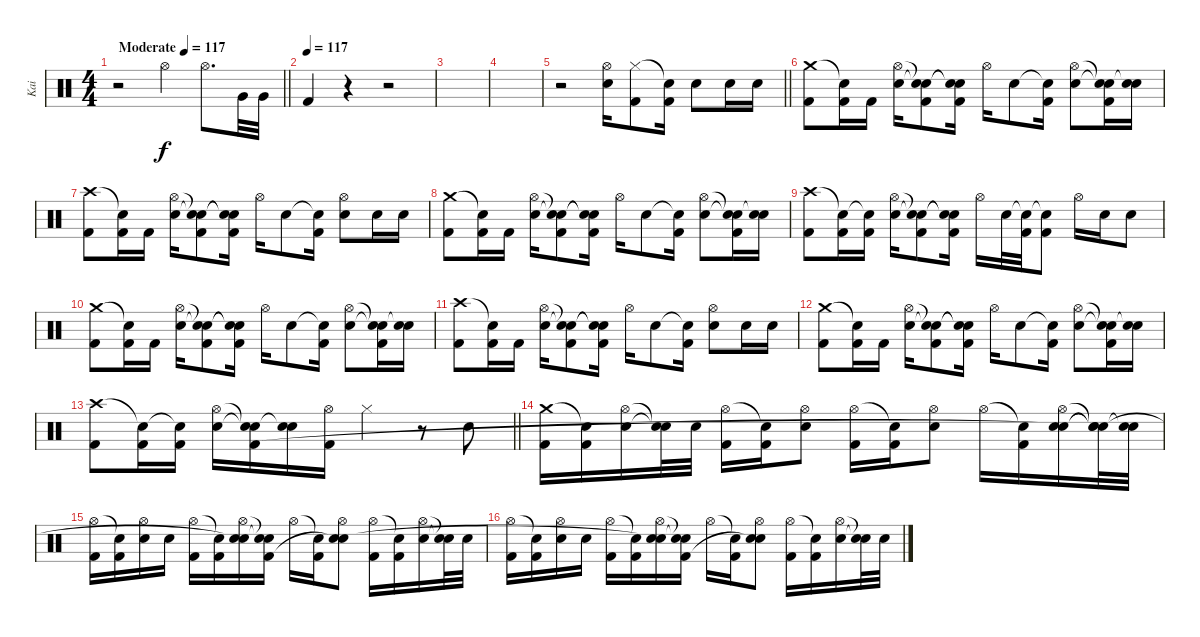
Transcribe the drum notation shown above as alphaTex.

\track ("Kai" "Kai") {instrument percussion}
\staff {score}
\articulation defaults
\ts (4 4)
\tempo (117 "Moderate")
\tempo 100
\tempo (117 "Moderate")
\clef neutral
\barLineRight lightlight
\ks c
r.2{dy f} "Hi-Hat (open)".4 "Hi-Hat (open)".8{d} "Very Low Tom (hit)".32 "Very Low Tom (hit)".32 |
\tempo (117)
"Kick (hit) 2".4 r.4 r.2 |
|
|
\barLineRight lightlight
r.2 ("Hi-Hat (open)" "Snare (hit) 2").16 ("Hi-Hat (closed)" "Kick (hit) 2").8 ("Snare (hit)"{t} "Kick (hit) 2").16 "Snare (hit) 2".8 "Snare (hit) 2".16 "Snare (hit) 2".16 |
("Crash medium (hit)" "Kick (hit) 2").8 ("Snare (hit)"{t} "Kick (hit) 2").16 "Kick (hit) 2".16 ("Hi-Hat (open)" "Snare (hit) 2").16 ("Snare (hit)"{t} "Snare (hit)"{t} "Kick (hit) 2").8 ("Snare (hit)"{t} "Snare (hit)"{t} "Kick (hit) 2").16 "Hi-Hat (open)".16 "Snare (hit) 2".8 ("Snare (hit)"{t} "Kick (hit) 2").16 ("Hi-Hat (open)" "Snare (hit) 2").8 ("Snare (hit)"{t} "Snare (hit)"{t} "Kick (hit) 2").16 ("Snare (hit) 2" "Snare (hit)"{t}).16 |
("Crash high (hit)" "Kick (hit) 2").8 ("Snare (hit)"{t} "Kick (hit) 2").16 "Kick (hit) 2".16 ("Hi-Hat (open)" "Snare (hit) 2").16 ("Snare (hit)"{t} "Snare (hit)"{t} "Kick (hit) 2").8 ("Snare (hit)"{t} "Snare (hit)"{t} "Kick (hit) 2").16 "Hi-Hat (open)".16 "Snare (hit) 2".8 ("Snare (hit)"{t} "Kick (hit) 2").16 ("Hi-Hat (open)" "Snare (hit) 2").8 "Snare (hit) 2".16 "Snare (hit) 2".16 |
("Crash medium (hit)" "Kick (hit) 2").8 ("Snare (hit)"{t} "Kick (hit) 2").16 "Kick (hit) 2".16 ("Hi-Hat (open)" "Snare (hit) 2").16 ("Snare (hit)"{t} "Snare (hit)"{t} "Kick (hit) 2").8 ("Snare (hit)"{t} "Snare (hit)"{t} "Kick (hit) 2").16 "Hi-Hat (open)".16 "Snare (hit) 2".8 ("Snare (hit)"{t} "Kick (hit) 2").16 ("Hi-Hat (open)" "Snare (hit) 2").8 ("Snare (hit)"{t} "Snare (hit)"{t} "Kick (hit) 2").16 ("Snare (hit) 2" "Snare (hit)"{t}).16 |
("Crash high (hit)" "Kick (hit) 2").8 ("Snare (hit)"{t} "Kick (hit) 2").16 ("Snare (hit)"{t} "Kick (hit) 2").16 ("Hi-Hat (open)" "Snare (hit) 2").16 ("Snare (hit)"{t} "Snare (hit)"{t} "Kick (hit) 2").8 ("Snare (hit)"{t} "Snare (hit)"{t} "Kick (hit) 2").16 "Hi-Hat (open)".16 "Snare (hit) 2".32 ("Snare (hit)"{t} "Kick (hit) 2").32 ("Snare (hit)"{t} "Kick (hit) 2").8 "Hi-Hat (open)".16 "Snare (hit) 2".16 "Snare (hit) 2".8 |
("Crash medium (hit)" "Kick (hit) 2").8 ("Snare (hit)"{t} "Kick (hit) 2").16 "Kick (hit) 2".16 ("Hi-Hat (open)" "Snare (hit) 2").16 ("Snare (hit)"{t} "Snare (hit)"{t} "Kick (hit) 2").8 ("Snare (hit)"{t} "Snare (hit)"{t} "Kick (hit) 2").16 "Hi-Hat (open)".16 "Snare (hit) 2".8 ("Snare (hit)"{t} "Kick (hit) 2").16 ("Hi-Hat (open)" "Snare (hit) 2").8 ("Snare (hit)"{t} "Snare (hit)"{t} "Kick (hit) 2").16 ("Snare (hit) 2" "Snare (hit)"{t}).16 |
("Crash high (hit)" "Kick (hit) 2").8 ("Snare (hit)"{t} "Kick (hit) 2").16 "Kick (hit) 2".16 ("Hi-Hat (open)" "Snare (hit) 2").16 ("Snare (hit)"{t} "Snare (hit)"{t} "Kick (hit) 2").8 ("Snare (hit)"{t} "Snare (hit)"{t} "Kick (hit) 2").16 "Hi-Hat (open)".16 "Snare (hit) 2".8 ("Snare (hit)"{t} "Kick (hit) 2").16 ("Hi-Hat (open)" "Snare (hit) 2").8 "Snare (hit) 2".16 "Snare (hit) 2".16 |
("Crash medium (hit)" "Kick (hit) 2").8 ("Snare (hit)"{t} "Kick (hit) 2").16 "Kick (hit) 2".16 ("Hi-Hat (open)" "Snare (hit) 2").16 ("Snare (hit)"{t} "Snare (hit)"{t} "Kick (hit) 2").8 ("Snare (hit)"{t} "Snare (hit)"{t} "Kick (hit) 2").16 "Hi-Hat (open)".16 "Snare (hit) 2".8 ("Snare (hit)"{t} "Kick (hit) 2").16 ("Hi-Hat (open)" "Snare (hit) 2").8 ("Snare (hit)"{t} "Snare (hit)"{t} "Kick (hit) 2").16 ("Snare (hit) 2" "Snare (hit)"{t}).16 |
\barLineRight lightlight
("Crash high (hit)" "Kick (hit) 2").8 ("Snare (hit)"{t} "Kick (hit) 2").16 ("Snare (hit)"{t} "Kick (hit) 2").16 ("Hi-Hat (open)" "Snare (hit) 2").16 ("Snare (hit)"{t} "Snare (hit)"{t} "Kick (hit) 2").16 ("Snare (hit) 2" "Snare (hit)"{t}).16 ("Hi-Hat (open)" "Kick (hit) 2").16 "Hi-Hat (closed)".4 r.8 "Snare (hit) 2".8 |
("Crash medium (hit)" "Kick (hit) 2").16 ("Snare (hit)"{t} "Kick (hit) 2").16 ("Hi-Hat (open)" "Snare (hit) 2").16 ("Snare (hit)"{t} "Snare (hit)"{t}).32 "Snare (hit) 2".32 ("Hi-Hat (open)" "Kick (hit) 2").16 ("Snare (hit)"{t} "Kick (hit) 2").16 ("Hi-Hat (open)" "Snare (hit) 2").8 ("Hi-Hat (open)" "Kick (hit) 2").16 ("Snare (hit)"{t} "Kick (hit) 2").16 ("Hi-Hat (open)" "Snare (hit) 2").8 "Hi-Hat (open)".16 ("Snare (hit)"{t} "Kick (hit) 2").16 ("Hi-Hat (open)" "Snare (hit) 2" "Snare (hit)"{t}).16 ("Snare (hit)"{t} "Snare (hit)"{t} "Snare (hit)"{t}).32 ("Snare (hit) 2" "Snare (hit)"{t}).32 |
("Hi-Hat (open)" "Kick (hit) 2").16 ("Snare (hit)"{t} "Kick (hit) 2").16 ("Hi-Hat (open)" "Snare (hit) 2").16 "Snare (hit) 2".16 ("Hi-Hat (open)" "Kick (hit) 2").16 ("Snare (hit)"{t} "Kick (hit) 2").16 ("Hi-Hat (open)" "Snare (hit) 2" "Snare (hit)"{t}).16 ("Snare (hit)"{t} "Snare (hit)"{t} "Kick (hit) 2").16 "Hi-Hat (open)".16 ("Snare (hit)"{t} "Kick (hit) 2").16 ("Hi-Hat (open)" "Snare (hit) 2" "Snare (hit)"{t}).8 ("Hi-Hat (open)" "Kick (hit) 2").16 ("Snare (hit)"{t} "Kick (hit) 2").16 ("Hi-Hat (open)" "Snare (hit) 2").16 ("Snare (hit)"{t} "Snare (hit)"{t}).32 "Snare (hit) 2".32 |
("Hi-Hat (open)" "Kick (hit) 2").16 ("Snare (hit)"{t} "Kick (hit) 2").16 ("Hi-Hat (open)" "Snare (hit) 2").16 "Snare (hit) 2".16 ("Hi-Hat (open)" "Kick (hit) 2").16 ("Snare (hit)"{t} "Kick (hit) 2").16 ("Hi-Hat (open)" "Snare (hit) 2" "Snare (hit)"{t}).16 ("Snare (hit)"{t} "Snare (hit)"{t} "Kick (hit) 2").16 "Hi-Hat (open)".16 ("Snare (hit)"{t} "Kick (hit) 2").16 ("Hi-Hat (open)" "Snare (hit) 2" "Snare (hit)"{t}).8 ("Hi-Hat (open)" "Kick (hit) 2").16 ("Snare (hit)"{t} "Kick (hit) 2").16 ("Hi-Hat (open)" "Snare (hit) 2").16 ("Snare (hit)"{t} "Snare (hit)"{t}).32 "Snare (hit) 2".32
